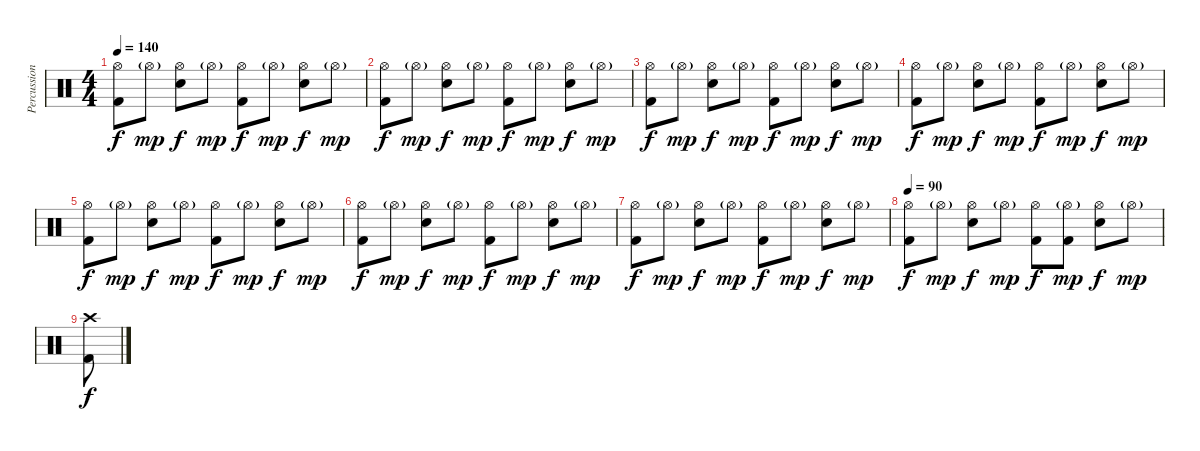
\track ("Percussion" "Percussion") {instrument percussion}
\staff {score}
\articulation defaults
\ts (4 4)
\tempo 140
\clef neutral
\ks c
("Hi-Hat (open)" "Kick (hit) 2").8{dy f} "Hi-Hat (open)"{g}.8{dy mp} ("Hi-Hat (open)" "Snare (hit) 2").8{dy f} "Hi-Hat (open)"{g}.8{dy mp} ("Hi-Hat (open)" "Kick (hit) 2").8{dy f} "Hi-Hat (open)"{g}.8{dy mp} ("Hi-Hat (open)" "Snare (hit) 2").8{dy f} "Hi-Hat (open)"{g}.8{dy mp} |
("Hi-Hat (open)" "Kick (hit) 2").8{dy f} "Hi-Hat (open)"{g}.8{dy mp} ("Hi-Hat (open)" "Snare (hit) 2").8{dy f} "Hi-Hat (open)"{g}.8{dy mp} ("Hi-Hat (open)" "Kick (hit) 2").8{dy f} "Hi-Hat (open)"{g}.8{dy mp} ("Hi-Hat (open)" "Snare (hit) 2").8{dy f} "Hi-Hat (open)"{g}.8{dy mp} |
("Hi-Hat (open)" "Kick (hit) 2").8{dy f} "Hi-Hat (open)"{g}.8{dy mp} ("Hi-Hat (open)" "Snare (hit) 2").8{dy f} "Hi-Hat (open)"{g}.8{dy mp} ("Hi-Hat (open)" "Kick (hit) 2").8{dy f} "Hi-Hat (open)"{g}.8{dy mp} ("Hi-Hat (open)" "Snare (hit) 2").8{dy f} "Hi-Hat (open)"{g}.8{dy mp} |
("Hi-Hat (open)" "Kick (hit) 2").8{dy f} "Hi-Hat (open)"{g}.8{dy mp} ("Hi-Hat (open)" "Snare (hit) 2").8{dy f} "Hi-Hat (open)"{g}.8{dy mp} ("Hi-Hat (open)" "Kick (hit) 2").8{dy f} "Hi-Hat (open)"{g}.8{dy mp} ("Hi-Hat (open)" "Snare (hit) 2").8{dy f} "Hi-Hat (open)"{g}.8{dy mp} |
("Hi-Hat (open)" "Kick (hit) 2").8{dy f} "Hi-Hat (open)"{g}.8{dy mp} ("Hi-Hat (open)" "Snare (hit) 2").8{dy f} "Hi-Hat (open)"{g}.8{dy mp} ("Hi-Hat (open)" "Kick (hit) 2").8{dy f} "Hi-Hat (open)"{g}.8{dy mp} ("Hi-Hat (open)" "Snare (hit) 2").8{dy f} "Hi-Hat (open)"{g}.8{dy mp} |
("Hi-Hat (open)" "Kick (hit) 2").8{dy f} "Hi-Hat (open)"{g}.8{dy mp} ("Hi-Hat (open)" "Snare (hit) 2").8{dy f} "Hi-Hat (open)"{g}.8{dy mp} ("Hi-Hat (open)" "Kick (hit) 2").8{dy f} "Hi-Hat (open)"{g}.8{dy mp} ("Hi-Hat (open)" "Snare (hit) 2").8{dy f} "Hi-Hat (open)"{g}.8{dy mp} |
("Hi-Hat (open)" "Kick (hit) 2").8{dy f} "Hi-Hat (open)"{g}.8{dy mp} ("Hi-Hat (open)" "Snare (hit) 2").8{dy f} "Hi-Hat (open)"{g}.8{dy mp} ("Hi-Hat (open)" "Kick (hit) 2").8{dy f} "Hi-Hat (open)"{g}.8{dy mp} ("Hi-Hat (open)" "Snare (hit) 2").8{dy f} "Hi-Hat (open)"{g}.8{dy mp} |
\tempo 90
("Hi-Hat (open)" "Kick (hit) 2").8{dy f} "Hi-Hat (open)"{g}.8{dy mp} ("Hi-Hat (open)" "Snare (hit) 2").8{dy f} "Hi-Hat (open)"{g}.8{dy mp} ("Hi-Hat (open)" "Kick (hit) 2").8{dy f} ("Hi-Hat (open)"{g} "Kick (hit) 2").8{dy mp} ("Hi-Hat (open)" "Snare (hit) 2").8{dy f} "Hi-Hat (open)"{g}.8{dy mp} |
("Crash high (hit)" "Kick (hit) 2").8{dy f}
